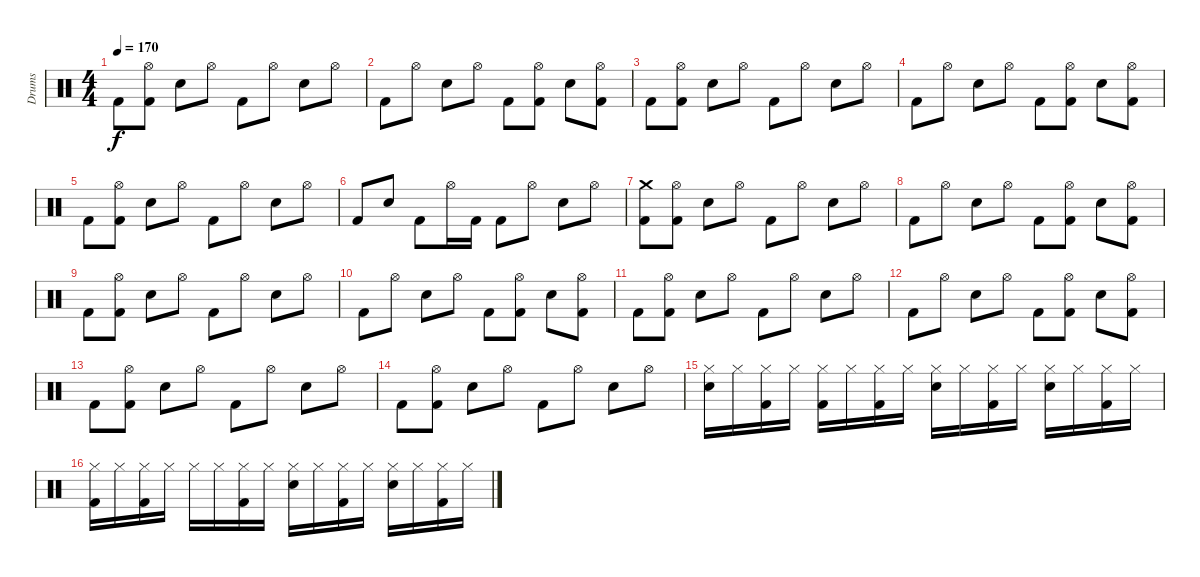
\track ("Drums" "Drums") {instrument percussion}
\staff {score}
\articulation defaults
\ts (4 4)
\tempo 170
\clef neutral
\ks c "Kick (hit) 2".8{dy f}
("Hi-Hat (open)" "Kick (hit) 2").8 "Electric Snare (hit)".8 "Hi-Hat (open)".8 "Kick (hit) 2".8 "Hi-Hat (open)".8 "Electric Snare (hit)".8 "Hi-Hat (open)".8 |
"Kick (hit) 2".8 "Hi-Hat (open)".8 "Electric Snare (hit)".8 "Hi-Hat (open)".8 "Kick (hit) 2".8 ("Hi-Hat (open)" "Kick (hit) 2").8 "Electric Snare (hit)".8 ("Hi-Hat (open)" "Kick (hit) 2").8 |
"Kick (hit) 2".8 ("Hi-Hat (open)" "Kick (hit) 2").8 "Electric Snare (hit)".8 "Hi-Hat (open)".8 "Kick (hit) 2".8 "Hi-Hat (open)".8 "Electric Snare (hit)".8 "Hi-Hat (open)".8 |
"Kick (hit) 2".8 "Hi-Hat (open)".8 "Electric Snare (hit)".8 "Hi-Hat (open)".8 "Kick (hit) 2".8 ("Hi-Hat (open)" "Kick (hit) 2").8 "Electric Snare (hit)".8 ("Hi-Hat (open)" "Kick (hit) 2").8 |
"Kick (hit) 2".8 ("Hi-Hat (open)" "Kick (hit) 2").8 "Electric Snare (hit)".8 "Hi-Hat (open)".8 "Kick (hit) 2".8 "Hi-Hat (open)".8 "Electric Snare (hit)".8 "Hi-Hat (open)".8 |
"Kick (hit) 2".8 "Electric Snare (hit)".8 "Kick (hit) 2".8 "Hi-Hat (open)".16 "Kick (hit) 2".16 "Kick (hit) 2".8 "Hi-Hat (open)".8 "Electric Snare (hit)".8 "Hi-Hat (open)".8 |
("Crash medium (hit)" "Kick (hit) 2").8 ("Hi-Hat (open)" "Kick (hit) 2").8 "Electric Snare (hit)".8 "Hi-Hat (open)".8 "Kick (hit) 2".8 "Hi-Hat (open)".8 "Electric Snare (hit)".8 "Hi-Hat (open)".8 |
"Kick (hit) 2".8 "Hi-Hat (open)".8 "Electric Snare (hit)".8 "Hi-Hat (open)".8 "Kick (hit) 2".8 ("Hi-Hat (open)" "Kick (hit) 2").8 "Electric Snare (hit)".8 ("Hi-Hat (open)" "Kick (hit) 2").8 |
"Kick (hit) 2".8 ("Hi-Hat (open)" "Kick (hit) 2").8 "Electric Snare (hit)".8 "Hi-Hat (open)".8 "Kick (hit) 2".8 "Hi-Hat (open)".8 "Electric Snare (hit)".8 "Hi-Hat (open)".8 |
"Kick (hit) 2".8 "Hi-Hat (open)".8 "Electric Snare (hit)".8 "Hi-Hat (open)".8 "Kick (hit) 2".8 ("Hi-Hat (open)" "Kick (hit) 2").8 "Electric Snare (hit)".8 ("Hi-Hat (open)" "Kick (hit) 2").8 |
"Kick (hit) 2".8 ("Hi-Hat (open)" "Kick (hit) 2").8 "Electric Snare (hit)".8 "Hi-Hat (open)".8 "Kick (hit) 2".8 "Hi-Hat (open)".8 "Electric Snare (hit)".8 "Hi-Hat (open)".8 |
"Kick (hit) 2".8 "Hi-Hat (open)".8 "Electric Snare (hit)".8 "Hi-Hat (open)".8 "Kick (hit) 2".8 ("Hi-Hat (open)" "Kick (hit) 2").8 "Electric Snare (hit)".8 ("Hi-Hat (open)" "Kick (hit) 2").8 |
"Kick (hit) 2".8 ("Hi-Hat (open)" "Kick (hit) 2").8 "Electric Snare (hit)".8 "Hi-Hat (open)".8 "Kick (hit) 2".8 "Hi-Hat (open)".8 "Electric Snare (hit)".8 "Hi-Hat (open)".8 |
"Kick (hit) 2".8 ("Hi-Hat (open)" "Kick (hit) 2").8 "Electric Snare (hit)".8 "Hi-Hat (open)".8 "Kick (hit) 2".8 "Hi-Hat (open)".8 "Electric Snare (hit)".8 "Hi-Hat (open)".8 |
("Hi-Hat (closed)" "Electric Snare (hit)").16 "Hi-Hat (closed)".16 ("Hi-Hat (closed)" "Kick (hit) 2").16 "Hi-Hat (closed)".16 ("Hi-Hat (closed)" "Kick (hit) 2").16 "Hi-Hat (closed)".16 ("Hi-Hat (closed)" "Kick (hit) 2").16 "Hi-Hat (closed)".16 ("Hi-Hat (closed)" "Electric Snare (hit)").16 "Hi-Hat (closed)".16 ("Hi-Hat (closed)" "Kick (hit) 2").16 "Hi-Hat (closed)".16 ("Hi-Hat (closed)" "Electric Snare (hit)").16 "Hi-Hat (closed)".16 ("Hi-Hat (closed)" "Kick (hit) 2").16 "Hi-Hat (closed)".16 |
("Hi-Hat (closed)" "Kick (hit) 2").16 "Hi-Hat (closed)".16 ("Hi-Hat (closed)" "Kick (hit) 2").16 "Hi-Hat (closed)".16 "Hi-Hat (closed)".16 "Hi-Hat (closed)".16 ("Hi-Hat (closed)" "Kick (hit) 2").16 "Hi-Hat (closed)".16 ("Hi-Hat (closed)" "Electric Snare (hit)").16 "Hi-Hat (closed)".16 ("Hi-Hat (closed)" "Kick (hit) 2").16 "Hi-Hat (closed)".16 ("Hi-Hat (closed)" "Electric Snare (hit)").16 "Hi-Hat (closed)".16 ("Hi-Hat (closed)" "Kick (hit) 2").16 "Hi-Hat (closed)".16
